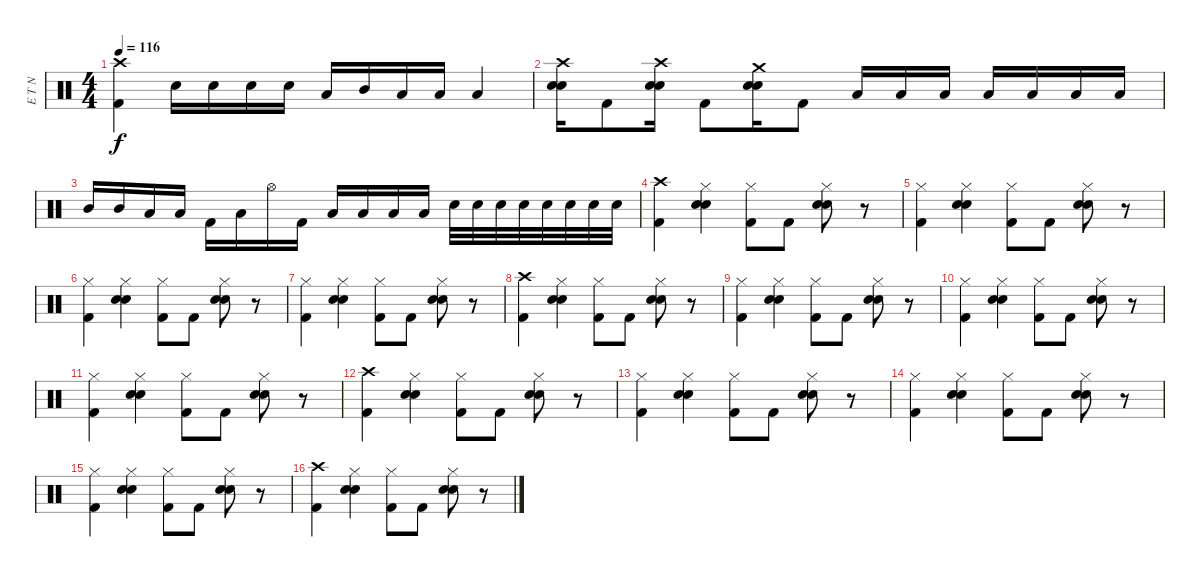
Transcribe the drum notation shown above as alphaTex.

\track ("E T N" "E T N") {instrument percussion}
\staff {score}
\articulation defaults
\ts (4 4)
\tempo 116
\clef neutral
\ks c
("Crash high (hit)" "Kick (hit) 2").4{dy f} "Electric Snare (hit)".16 "Electric Snare (hit)".16 "Electric Snare (hit)".16 "Electric Snare (hit)".16 "Low Tom (hit)".16 "Mid Tom (hit)".16 "Low Tom (hit)".16 "Low Tom (hit)".16 "Low Tom (hit)".4 |
("Crash high (hit)" "Electric Snare (hit)" "Electric Snare (hit)").16 "Kick (hit) 2".8 ("Crash high (hit)" "Electric Snare (hit)" "Electric Snare (hit)").16 "Kick (hit) 2".8 ("Crash medium (hit)" "Electric Snare (hit)" "Electric Snare (hit)").16 "Kick (hit) 2".8 "Low Floor Tom (hit)".16 "Low Floor Tom (hit)".16 "Low Floor Tom (hit)".16 "Low Tom (hit)".16 "Low Tom (hit)".16 "Low Tom (hit)".16 "Low Tom (hit)".16 |
"Mid Tom (hit)".16 "Mid Tom (hit)".16 "Low Tom (hit)".16 "Low Tom (hit)".16 "Kick (hit) 2".16 "Low Floor Tom (hit)".16 "Hi-Hat (open)".16 "Kick (hit) 2".16 "Low Floor Tom (hit)".16 "Low Floor Tom (hit)".16 "Low Floor Tom (hit)".16 "Low Floor Tom (hit)".16 "Electric Snare (hit)".32 "Electric Snare (hit)".32 "Electric Snare (hit)".32 "Electric Snare (hit)".32 "Electric Snare (hit)".32 "Electric Snare (hit)".32 "Electric Snare (hit)".32 "Electric Snare (hit)".32 |
("Crash high (hit)" "Kick (hit) 2").4 ("Hi-Hat (closed)" "Electric Snare (hit)" "Electric Snare (hit)").4 ("Hi-Hat (closed)" "Kick (hit) 2").8 "Kick (hit) 2".8 ("Hi-Hat (closed)" "Electric Snare (hit)" "Electric Snare (hit)").8 r.8 |
("Hi-Hat (closed)" "Kick (hit) 2").4 ("Hi-Hat (closed)" "Electric Snare (hit)" "Electric Snare (hit)").4 ("Hi-Hat (closed)" "Kick (hit) 2").8 "Kick (hit) 2".8 ("Hi-Hat (closed)" "Electric Snare (hit)" "Electric Snare (hit)").8 r.8 |
("Hi-Hat (closed)" "Kick (hit) 2").4 ("Hi-Hat (closed)" "Electric Snare (hit)" "Electric Snare (hit)").4 ("Hi-Hat (closed)" "Kick (hit) 2").8 "Kick (hit) 2".8 ("Hi-Hat (closed)" "Electric Snare (hit)" "Electric Snare (hit)").8 r.8 |
("Hi-Hat (closed)" "Kick (hit) 2").4 ("Hi-Hat (closed)" "Electric Snare (hit)" "Electric Snare (hit)").4 ("Hi-Hat (closed)" "Kick (hit) 2").8 "Kick (hit) 2".8 ("Hi-Hat (closed)" "Electric Snare (hit)" "Electric Snare (hit)").8 r.8 |
("Crash high (hit)" "Kick (hit) 2").4 ("Hi-Hat (closed)" "Electric Snare (hit)" "Electric Snare (hit)").4 ("Hi-Hat (closed)" "Kick (hit) 2").8 "Kick (hit) 2".8 ("Hi-Hat (closed)" "Electric Snare (hit)" "Electric Snare (hit)").8 r.8 |
("Hi-Hat (closed)" "Kick (hit) 2").4 ("Hi-Hat (closed)" "Electric Snare (hit)" "Electric Snare (hit)").4 ("Hi-Hat (closed)" "Kick (hit) 2").8 "Kick (hit) 2".8 ("Hi-Hat (closed)" "Electric Snare (hit)" "Electric Snare (hit)").8 r.8 |
("Hi-Hat (closed)" "Kick (hit) 2").4 ("Hi-Hat (closed)" "Electric Snare (hit)" "Electric Snare (hit)").4 ("Hi-Hat (closed)" "Kick (hit) 2").8 "Kick (hit) 2".8 ("Hi-Hat (closed)" "Electric Snare (hit)" "Electric Snare (hit)").8 r.8 |
("Hi-Hat (closed)" "Kick (hit) 2").4 ("Hi-Hat (closed)" "Electric Snare (hit)" "Electric Snare (hit)").4 ("Hi-Hat (closed)" "Kick (hit) 2").8 "Kick (hit) 2".8 ("Hi-Hat (closed)" "Electric Snare (hit)" "Electric Snare (hit)").8 r.8 |
("Crash high (hit)" "Kick (hit) 2").4 ("Hi-Hat (closed)" "Electric Snare (hit)" "Electric Snare (hit)").4 ("Hi-Hat (closed)" "Kick (hit) 2").8 "Kick (hit) 2".8 ("Hi-Hat (closed)" "Electric Snare (hit)" "Electric Snare (hit)").8 r.8 |
("Hi-Hat (closed)" "Kick (hit) 2").4 ("Hi-Hat (closed)" "Electric Snare (hit)" "Electric Snare (hit)").4 ("Hi-Hat (closed)" "Kick (hit) 2").8 "Kick (hit) 2".8 ("Hi-Hat (closed)" "Electric Snare (hit)" "Electric Snare (hit)").8 r.8 |
("Hi-Hat (closed)" "Kick (hit) 2").4 ("Hi-Hat (closed)" "Electric Snare (hit)" "Electric Snare (hit)").4 ("Hi-Hat (closed)" "Kick (hit) 2").8 "Kick (hit) 2".8 ("Hi-Hat (closed)" "Electric Snare (hit)" "Electric Snare (hit)").8 r.8 |
("Hi-Hat (closed)" "Kick (hit) 2").4 ("Hi-Hat (closed)" "Electric Snare (hit)" "Electric Snare (hit)").4 ("Hi-Hat (closed)" "Kick (hit) 2").8 "Kick (hit) 2".8 ("Hi-Hat (closed)" "Electric Snare (hit)" "Electric Snare (hit)").8 r.8 |
("Crash high (hit)" "Kick (hit) 2").4 ("Hi-Hat (closed)" "Electric Snare (hit)" "Electric Snare (hit)").4 ("Hi-Hat (closed)" "Kick (hit) 2").8 "Kick (hit) 2".8 ("Hi-Hat (closed)" "Electric Snare (hit)" "Electric Snare (hit)").8 r.8
